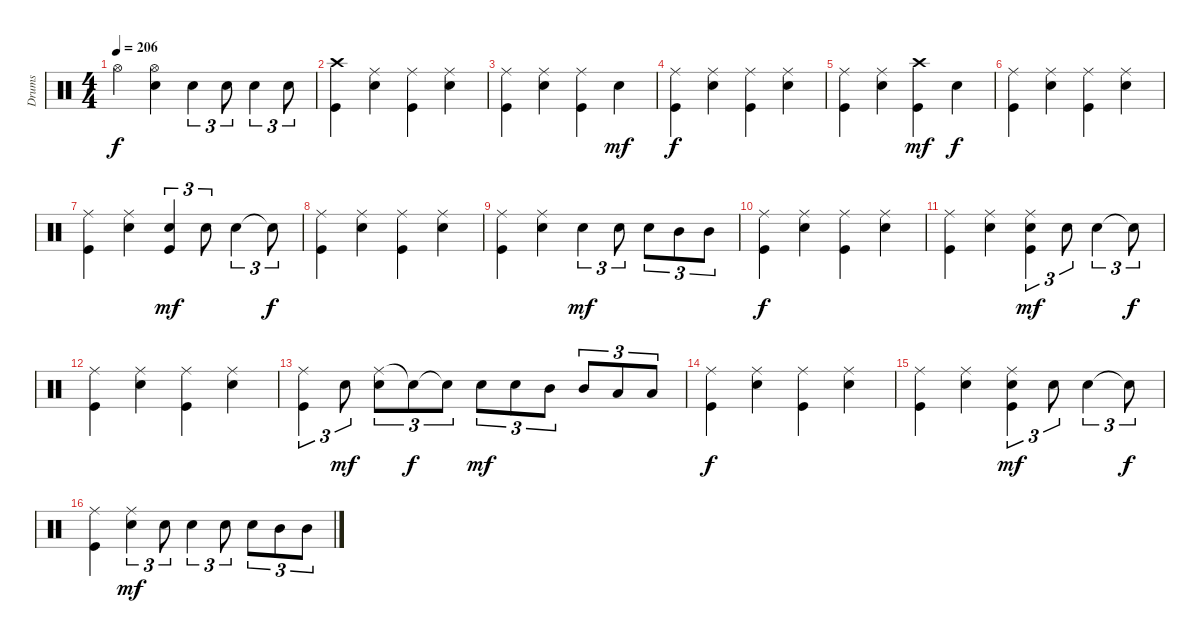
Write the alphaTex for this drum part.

\track ("Drums" "Drums") {instrument percussion}
\staff {score}
\articulation defaults
\ts (4 4)
\tempo 206
\clef neutral
\ks c "Hi-Hat (open)".4{dy f}
("Hi-Hat (open)" "Electric Snare (hit)").4 "Electric Snare (hit)".4{tu (3 2)} "Electric Snare (hit)".8{tu (3 2)} "Electric Snare (hit)".4{tu (3 2)} "Electric Snare (hit)".8{tu (3 2)} |
("Crash high (hit)" "Kick (hit)").4 ("Ride (middle)" "Electric Snare (hit)").4 ("Ride (middle)" "Kick (hit)").4 ("Ride (middle)" "Electric Snare (hit)").4 |
("Ride (middle)" "Kick (hit)").4 ("Ride (middle)" "Electric Snare (hit)").4 ("Ride (middle)" "Kick (hit)").4 "Snare (hit) 2".4{dy mf} |
("Ride (middle)" "Kick (hit)").4{dy f} ("Ride (middle)" "Electric Snare (hit)").4 ("Ride (middle)" "Kick (hit)").4 ("Ride (middle)" "Electric Snare (hit)").4 |
("Ride (middle)" "Kick (hit)").4 ("Ride (middle)" "Electric Snare (hit)").4 ("Crash high (hit)" "Kick (hit)").4{dy mf} "Electric Snare (hit)".4{dy f} |
("Ride (middle)" "Kick (hit)").4 ("Ride (middle)" "Electric Snare (hit)").4 ("Ride (middle)" "Kick (hit)").4 ("Ride (middle)" "Electric Snare (hit)").4 |
("Ride (middle)" "Kick (hit)").4 ("Ride (middle)" "Electric Snare (hit)").4 ("Electric Snare (hit)" "Kick (hit)").4{tu (3 2) dy mf} "Electric Snare (hit)".8{tu (3 2)} "Electric Snare (hit)".4{tu (3 2)} "Electric Snare (hit)"{t}.8{tu (3 2) dy f} |
("Ride (middle)" "Kick (hit)").4 ("Ride (middle)" "Electric Snare (hit)").4 ("Ride (middle)" "Kick (hit)").4 ("Ride (middle)" "Electric Snare (hit)").4 |
("Ride (middle)" "Kick (hit)").4 ("Ride (middle)" "Electric Snare (hit)").4 "Electric Snare (hit)".4{tu (3 2) dy mf} "Electric Snare (hit)".8{tu (3 2)} "Electric Snare (hit)".8{tu (3 2)} "Mid Tom (hit)".8{tu (3 2)} "Mid Tom (hit)".8{tu (3 2)} |
("Ride (middle)" "Kick (hit)").4{dy f} ("Ride (middle)" "Electric Snare (hit)").4 ("Ride (middle)" "Kick (hit)").4 ("Ride (middle)" "Electric Snare (hit)").4 |
("Ride (middle)" "Kick (hit)").4 ("Ride (middle)" "Electric Snare (hit)").4 ("Ride (middle)" "Electric Snare (hit)" "Kick (hit)").4{tu (3 2) dy mf} "Electric Snare (hit)".8{tu (3 2)} "Electric Snare (hit)".4{tu (3 2)} "Snare (hit)"{t}.8{tu (3 2) dy f} |
("Ride (middle)" "Kick (hit)").4 ("Ride (middle)" "Electric Snare (hit)").4 ("Ride (middle)" "Kick (hit)").4 ("Ride (middle)" "Electric Snare (hit)").4 |
("Ride (middle)" "Kick (hit)").4{tu (3 2)} "Electric Snare (hit)".8{tu (3 2) dy mf} ("Ride (middle)" "Electric Snare (hit)").8{tu (3 2)} "Snare (hit)"{t}.8{tu (3 2) dy f} "Snare (hit)"{t}.8{tu (3 2)} "Electric Snare (hit)".8{tu (3 2) dy mf} "Electric Snare (hit)".8{tu (3 2)} "Mid Tom (hit)".8{tu (3 2)} "Mid Tom (hit)".8{tu (3 2)} "Low Tom (hit)".8{tu (3 2)} "Low Tom (hit)".8{tu (3 2)} |
("Ride (middle)" "Kick (hit)").4{dy f} ("Ride (middle)" "Electric Snare (hit)").4 ("Ride (middle)" "Kick (hit)").4 ("Ride (middle)" "Electric Snare (hit)").4 |
("Ride (middle)" "Kick (hit)").4 ("Ride (middle)" "Electric Snare (hit)").4 ("Ride (middle)" "Electric Snare (hit)" "Kick (hit)").4{tu (3 2) dy mf} "Electric Snare (hit)".8{tu (3 2)} "Electric Snare (hit)".4{tu (3 2)} "Snare (hit)"{t}.8{tu (3 2) dy f} |
("Ride (middle)" "Kick (hit)").4 ("Ride (middle)" "Electric Snare (hit)").4{tu (3 2) dy mf} "Electric Snare (hit)".8{tu (3 2)} "Electric Snare (hit)".4{tu (3 2)} "Electric Snare (hit)".8{tu (3 2)} "Electric Snare (hit)".8{tu (3 2)} "Mid Tom (hit)".8{tu (3 2)} "Mid Tom (hit)".8{tu (3 2)}
